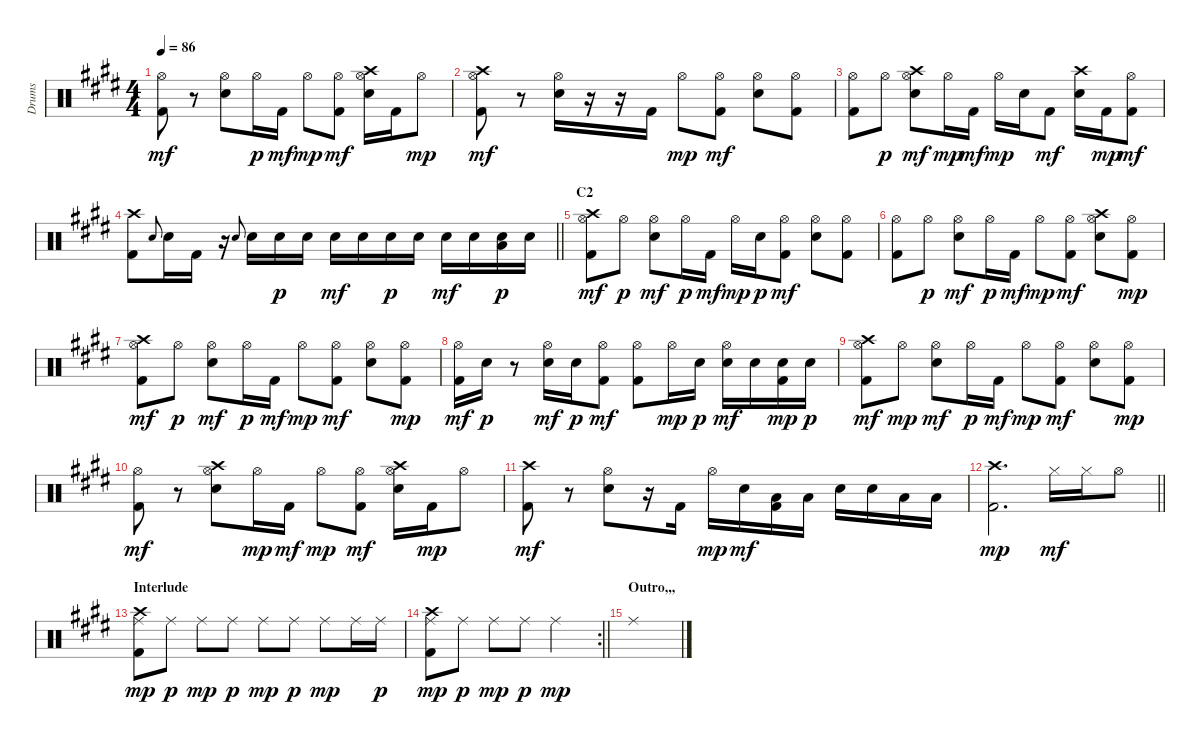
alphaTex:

\track ("Drums" "Drums") {instrument percussion}
\staff {score}
\articulation defaults
\ts (4 4)
\tempo 86
\clef neutral
\ks e
("Hi-Hat (open)" "Kick (hit) 2").8{dy mf} r.8 ("Hi-Hat (open)" "Snare (hit) 2").8 "Hi-Hat (open)".16{dy p} "Kick (hit) 2".16{dy mf} "Hi-Hat (open)".8{dy mp} ("Hi-Hat (open)" "Kick (hit) 2").8{dy mf} ("Crash high (hit)" "Hi-Hat (open)" "Snare (hit) 2").16 "Kick (hit) 2".16 "Hi-Hat (open)".8{dy mp} |
("Crash high (hit)" "Hi-Hat (open)" "Kick (hit) 2").8{dy mf} r.8 ("Hi-Hat (open)" "Snare (hit) 2").16 r.16 r.16 "Kick (hit) 2".16 "Hi-Hat (open)".8{dy mp} ("Hi-Hat (open)" "Kick (hit) 2").8{dy mf} ("Hi-Hat (open)" "Snare (hit) 2").8 ("Hi-Hat (open)" "Kick (hit) 2").8 |
("Hi-Hat (open)" "Kick (hit) 2").8 "Hi-Hat (open)".8{dy p} ("Crash high (hit)" "Hi-Hat (open)" "Snare (hit) 2").8{dy mf} "Hi-Hat (open)".16{dy mp} "Kick (hit) 2".16{dy mf} "Hi-Hat (open)".16{dy mp} "Snare (hit) 2".16 "Kick (hit) 2".8{dy mf} ("Crash high (hit)" "Snare (hit) 2").16 "Kick (hit) 2".16{dy mp} ("Hi-Hat (open)" "Kick (hit) 2").8{dy mf} |
\barLineRight lightlight
("Crash high (hit)" "Kick (hit) 2").8 "Snare (hit) 2".8{gr onbeat} "Snare (hit) 2".16 "Kick (hit) 2".16 r.16 "Snare (hit) 2".8{gr onbeat} "Snare (hit) 2".16 "Snare (hit) 2".16{dy p} "Snare (hit) 2".16 "Snare (hit) 2".16{dy mf} "Snare (hit) 2".16 "Snare (hit) 2".16{dy p} "Snare (hit) 2".16 "Snare (hit) 2".16{dy mf} "Snare (hit) 2".16 ("Low Tom (hit)" "Snare (hit) 2").16{dy p} "Snare (hit) 2".16 |
\section ("" "C2")
("Crash high (hit)" "Hi-Hat (open)" "Kick (hit) 2").8{dy mf} "Hi-Hat (open)".8{dy p} ("Hi-Hat (open)" "Snare (hit) 2").8{dy mf} "Hi-Hat (open)".16{dy p} "Kick (hit) 2".16{dy mf} "Hi-Hat (open)".16{dy mp} "Snare (hit) 2".16{dy p} ("Hi-Hat (open)" "Kick (hit) 2").8{dy mf} ("Hi-Hat (open)" "Snare (hit) 2").8 ("Hi-Hat (open)" "Kick (hit) 2").8 |
("Hi-Hat (open)" "Kick (hit) 2").8 "Hi-Hat (open)".8{dy p} ("Hi-Hat (open)" "Snare (hit) 2").8{dy mf} "Hi-Hat (open)".16{dy p} "Kick (hit) 2".16{dy mf} "Hi-Hat (open)".8{dy mp} ("Hi-Hat (open)" "Kick (hit) 2").8{dy mf} ("Crash high (hit)" "Hi-Hat (open)" "Snare (hit) 2").8 ("Hi-Hat (open)" "Kick (hit) 2").8{dy mp} |
("Crash high (hit)" "Hi-Hat (open)" "Kick (hit) 2").8{dy mf} "Hi-Hat (open)".8{dy p} ("Hi-Hat (open)" "Snare (hit) 2").8{dy mf} "Hi-Hat (open)".16{dy p} "Kick (hit) 2".16{dy mf} "Hi-Hat (open)".8{dy mp} ("Hi-Hat (open)" "Kick (hit) 2").8{dy mf} ("Hi-Hat (open)" "Snare (hit) 2").8 ("Hi-Hat (open)" "Kick (hit) 2").8{dy mp} |
("Hi-Hat (open)" "Kick (hit) 2").16{dy mf} "Snare (hit) 2".16{dy p} r.8 ("Hi-Hat (open)" "Snare (hit) 2").16{dy mf} "Snare (hit) 2".16{dy p} ("Hi-Hat (open)" "Kick (hit) 2").8{dy mf} ("Hi-Hat (open)" "Kick (hit) 2").8 "Hi-Hat (open)".16{dy mp} "Snare (hit) 2".16{dy p} ("Hi-Hat (open)" "Snare (hit) 2").16{dy mf} "Snare (hit) 2".16 ("Snare (hit) 2" "Kick (hit) 2").16{dy mp} "Snare (hit) 2".16{dy p} |
("Crash high (hit)" "Hi-Hat (open)" "Kick (hit) 2").8{dy mf} "Hi-Hat (open)".8{dy mp} ("Hi-Hat (open)" "Snare (hit) 2").8{dy mf} "Hi-Hat (open)".16{dy p} "Kick (hit) 2".16{dy mf} "Hi-Hat (open)".8{dy mp} ("Hi-Hat (open)" "Kick (hit) 2").8{dy mf} ("Hi-Hat (open)" "Snare (hit) 2").8 ("Hi-Hat (open)" "Kick (hit) 2").8{dy mp} |
("Hi-Hat (open)" "Kick (hit) 2").8{dy mf} r.8 ("Crash high (hit)" "Hi-Hat (open)" "Snare (hit) 2").8 "Hi-Hat (open)".16{dy mp} "Kick (hit) 2".16{dy mf} "Hi-Hat (open)".8{dy mp} ("Hi-Hat (open)" "Kick (hit) 2").8{dy mf} ("Crash high (hit)" "Hi-Hat (open)" "Snare (hit) 2").16 "Kick (hit) 2".16{dy mp} "Hi-Hat (open)".8 |
("Crash high (hit)" "Kick (hit) 2").8{dy mf} r.8 ("Hi-Hat (open)" "Snare (hit) 2").8 r.16 "Kick (hit) 2".16 "Hi-Hat (open)".16{dy mp} "Snare (hit) 2".16{dy mf} ("Low Tom (hit)" "Kick (hit) 2").16 "Low Tom (hit)".16 "Snare (hit) 2".16 "Snare (hit) 2".16 "Low Tom (hit)".16 "Low Tom (hit)".16 |
\barLineRight lightlight
("Crash high (hit)" "Kick (hit) 2").2{d dy mp} "Hi-Hat (closed)".16{dy mf} "Hi-Hat (closed)".16 "Hi-Hat (open)".8 |
\section ("" "Interlude")
("Crash high (hit)" "Ride (middle)" "Kick (hit) 2").8{dy mp} "Ride (middle)".8{dy p} "Ride (middle)".8{dy mp} "Ride (middle)".8{dy p} "Ride (middle)".8{dy mp} "Ride (middle)".8{dy p} "Ride (middle)".8{dy mp} "Ride (middle)".16 "Ride (middle)".16{dy p} |
\rc 2
\barLineRight lightlight
("Crash high (hit)" "Ride (middle)" "Kick (hit) 2").8{dy mp} "Ride (middle)".8{dy p} "Ride (middle)".8{dy mp} "Ride (middle)".8{dy p} "Ride (middle)".2{dy mp} |
\section ("" "Outro,,,")
"Ride (middle)".1
